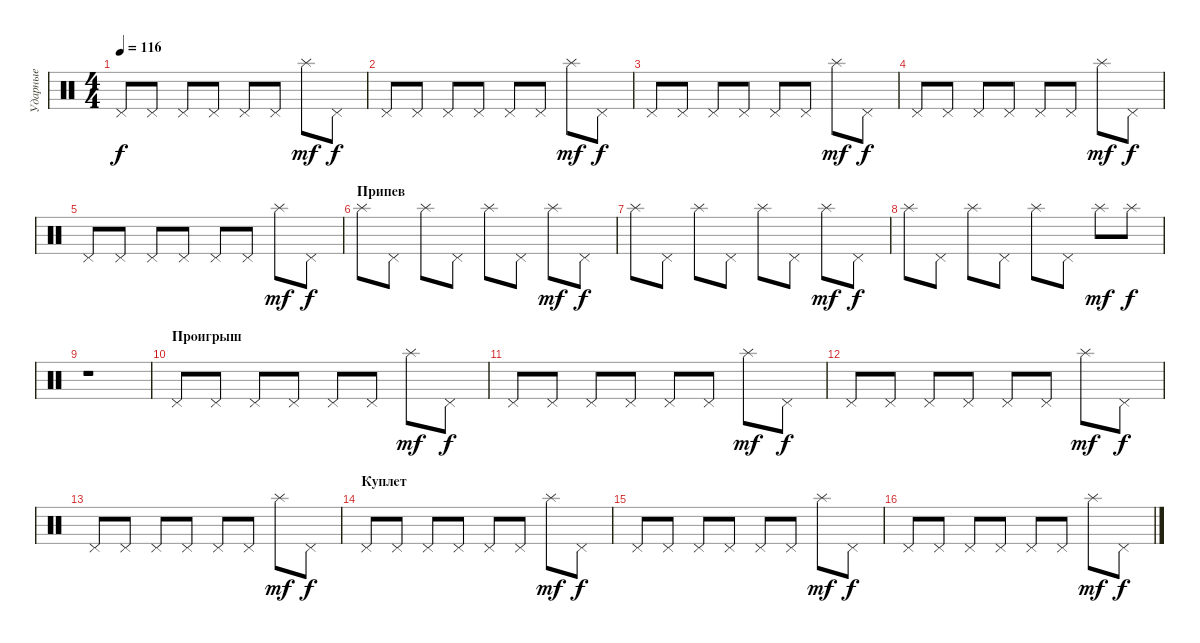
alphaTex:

\track ("Ударные" "Ударные") {instrument percussion}
\staff {score}
\articulation defaults
\ts (4 4)
\tempo 116
\clef neutral
\ks c "Pedal Hi-Hat (hit)".8{dy f} "Pedal Hi-Hat (hit)".8 "Pedal Hi-Hat (hit)".8 "Pedal Hi-Hat (hit)".8 "Pedal Hi-Hat (hit)".8 "Pedal Hi-Hat (hit)".8 "Splash (hit)".8{dy mf} "Pedal Hi-Hat (hit)".8{dy f}
|
"Pedal Hi-Hat (hit)".8 "Pedal Hi-Hat (hit)".8 "Pedal Hi-Hat (hit)".8 "Pedal Hi-Hat (hit)".8 "Pedal Hi-Hat (hit)".8 "Pedal Hi-Hat (hit)".8 "Splash (hit)".8{dy mf} "Pedal Hi-Hat (hit)".8{dy f} |
"Pedal Hi-Hat (hit)".8 "Pedal Hi-Hat (hit)".8 "Pedal Hi-Hat (hit)".8 "Pedal Hi-Hat (hit)".8 "Pedal Hi-Hat (hit)".8 "Pedal Hi-Hat (hit)".8 "Splash (hit)".8{dy mf} "Pedal Hi-Hat (hit)".8{dy f} |
"Pedal Hi-Hat (hit)".8 "Pedal Hi-Hat (hit)".8 "Pedal Hi-Hat (hit)".8 "Pedal Hi-Hat (hit)".8 "Pedal Hi-Hat (hit)".8 "Pedal Hi-Hat (hit)".8 "Splash (hit)".8{dy mf} "Pedal Hi-Hat (hit)".8{dy f} |
"Pedal Hi-Hat (hit)".8 "Pedal Hi-Hat (hit)".8 "Pedal Hi-Hat (hit)".8 "Pedal Hi-Hat (hit)".8 "Pedal Hi-Hat (hit)".8 "Pedal Hi-Hat (hit)".8 "Splash (hit)".8{dy mf} "Pedal Hi-Hat (hit)".8{dy f} |
\section ("" "Припев")
"Splash (hit)".8 "Pedal Hi-Hat (hit)".8 "Splash (hit)".8 "Pedal Hi-Hat (hit)".8 "Splash (hit)".8 "Pedal Hi-Hat (hit)".8 "Splash (hit)".8{dy mf} "Pedal Hi-Hat (hit)".8{dy f} |
"Splash (hit)".8 "Pedal Hi-Hat (hit)".8 "Splash (hit)".8 "Pedal Hi-Hat (hit)".8 "Splash (hit)".8 "Pedal Hi-Hat (hit)".8 "Splash (hit)".8{dy mf} "Pedal Hi-Hat (hit)".8{dy f} |
"Splash (hit)".8 "Pedal Hi-Hat (hit)".8 "Splash (hit)".8 "Pedal Hi-Hat (hit)".8 "Splash (hit)".8 "Pedal Hi-Hat (hit)".8 "Splash (hit)".8{dy mf} "Splash (hit)".8{dy f} |
r.1 |
\section ("" "Проигрыш")
"Pedal Hi-Hat (hit)".8 "Pedal Hi-Hat (hit)".8 "Pedal Hi-Hat (hit)".8 "Pedal Hi-Hat (hit)".8 "Pedal Hi-Hat (hit)".8 "Pedal Hi-Hat (hit)".8 "Splash (hit)".8{dy mf} "Pedal Hi-Hat (hit)".8{dy f} |
"Pedal Hi-Hat (hit)".8 "Pedal Hi-Hat (hit)".8 "Pedal Hi-Hat (hit)".8 "Pedal Hi-Hat (hit)".8 "Pedal Hi-Hat (hit)".8 "Pedal Hi-Hat (hit)".8 "Splash (hit)".8{dy mf} "Pedal Hi-Hat (hit)".8{dy f} |
"Pedal Hi-Hat (hit)".8 "Pedal Hi-Hat (hit)".8 "Pedal Hi-Hat (hit)".8 "Pedal Hi-Hat (hit)".8 "Pedal Hi-Hat (hit)".8 "Pedal Hi-Hat (hit)".8 "Splash (hit)".8{dy mf} "Pedal Hi-Hat (hit)".8{dy f} |
"Pedal Hi-Hat (hit)".8 "Pedal Hi-Hat (hit)".8 "Pedal Hi-Hat (hit)".8 "Pedal Hi-Hat (hit)".8 "Pedal Hi-Hat (hit)".8 "Pedal Hi-Hat (hit)".8 "Splash (hit)".8{dy mf} "Pedal Hi-Hat (hit)".8{dy f} |
\section ("" "Куплет")
"Pedal Hi-Hat (hit)".8 "Pedal Hi-Hat (hit)".8 "Pedal Hi-Hat (hit)".8 "Pedal Hi-Hat (hit)".8 "Pedal Hi-Hat (hit)".8 "Pedal Hi-Hat (hit)".8 "Splash (hit)".8{dy mf} "Pedal Hi-Hat (hit)".8{dy f} |
"Pedal Hi-Hat (hit)".8 "Pedal Hi-Hat (hit)".8 "Pedal Hi-Hat (hit)".8 "Pedal Hi-Hat (hit)".8 "Pedal Hi-Hat (hit)".8 "Pedal Hi-Hat (hit)".8 "Splash (hit)".8{dy mf} "Pedal Hi-Hat (hit)".8{dy f} |
"Pedal Hi-Hat (hit)".8 "Pedal Hi-Hat (hit)".8 "Pedal Hi-Hat (hit)".8 "Pedal Hi-Hat (hit)".8 "Pedal Hi-Hat (hit)".8 "Pedal Hi-Hat (hit)".8 "Splash (hit)".8{dy mf} "Pedal Hi-Hat (hit)".8{dy f}
